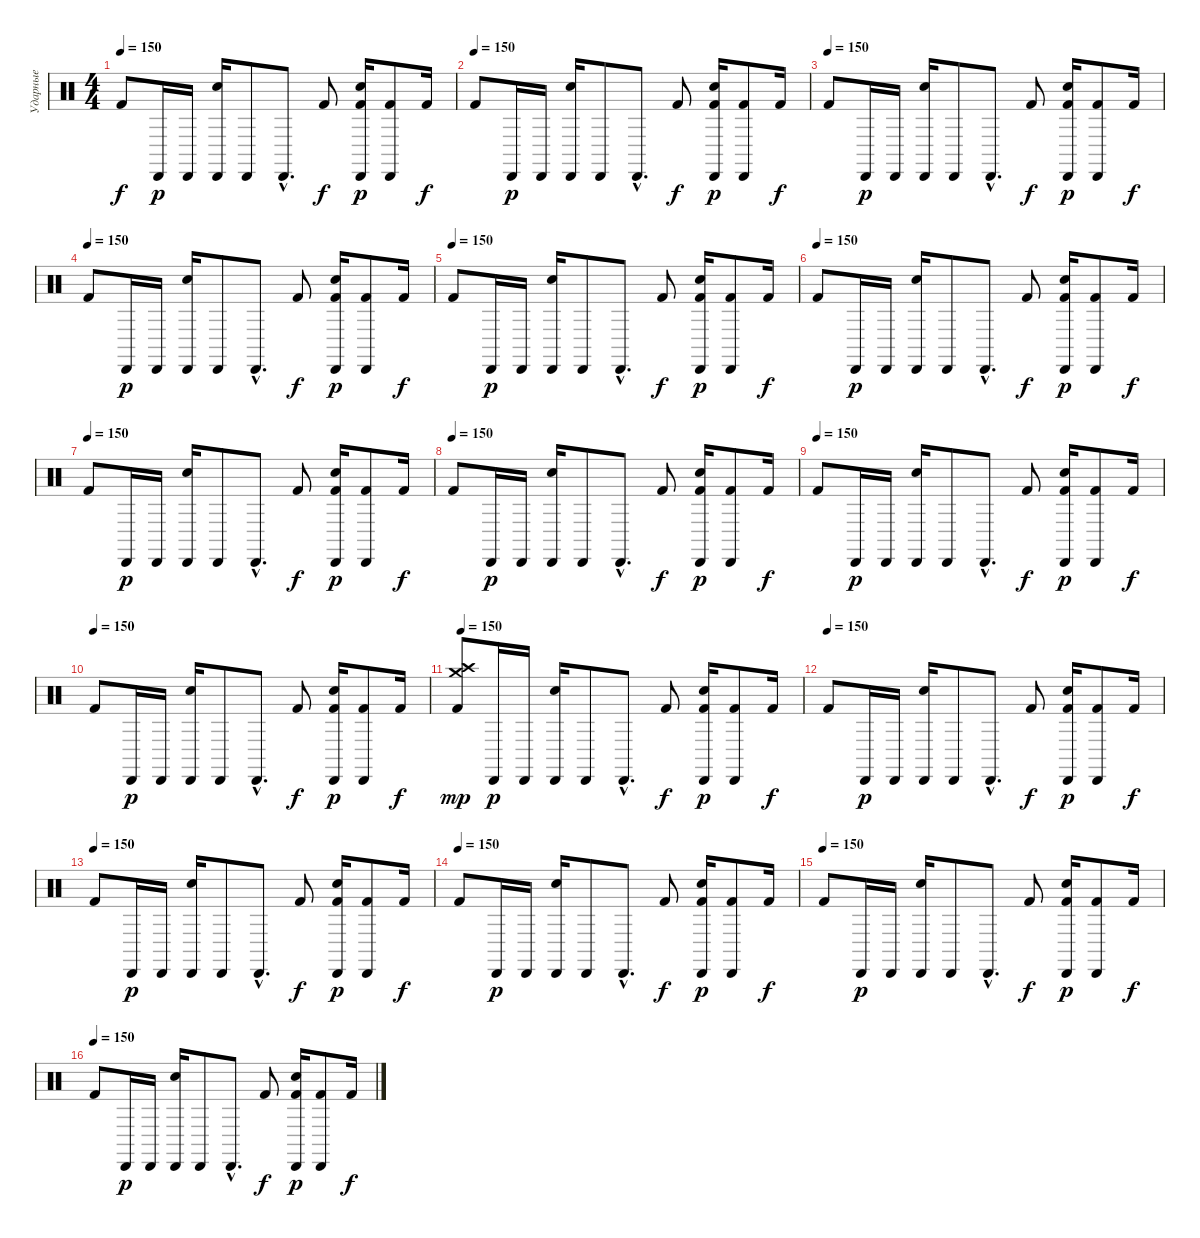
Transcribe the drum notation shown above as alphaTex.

\track ("Ударные" "Ударные") {instrument percussion}
\staff {score}
\articulation defaults
\ts (4 4)
\tempo 150
\clef neutral
\ks c "Kick (hit) 2".8{dy f} "Cabasa (hit)".16{dy p} "Cabasa (hit)".16
("Cabasa (hit)" "Electric Snare (hit)").16 "Cabasa (hit)".8 "Cabasa (hit)"{hac}.8{d} "Kick (hit) 2".8{dy f} ("Cabasa (hit)" "Electric Snare (hit)" "Kick (hit) 2").16{dy p} ("Cabasa (hit)" "Kick (hit) 2").8 "Kick (hit) 2".16{dy f} |
\tempo (150)
"Kick (hit) 2".8 "Cabasa (hit)".16{dy p} "Cabasa (hit)".16 ("Cabasa (hit)" "Electric Snare (hit)").16 "Cabasa (hit)".8 "Cabasa (hit)"{hac}.8{d} "Kick (hit) 2".8{dy f} ("Cabasa (hit)" "Electric Snare (hit)" "Kick (hit) 2").16{dy p} ("Cabasa (hit)" "Kick (hit) 2").8 "Kick (hit) 2".16{dy f} |
\tempo (150)
"Kick (hit) 2".8 "Cabasa (hit)".16{dy p} "Cabasa (hit)".16 ("Cabasa (hit)" "Electric Snare (hit)").16 "Cabasa (hit)".8 "Cabasa (hit)"{hac}.8{d} "Kick (hit) 2".8{dy f} ("Cabasa (hit)" "Electric Snare (hit)" "Kick (hit) 2").16{dy p} ("Cabasa (hit)" "Kick (hit) 2").8 "Kick (hit) 2".16{dy f} |
\tempo (150)
"Kick (hit) 2".8 "Cabasa (hit)".16{dy p} "Cabasa (hit)".16 ("Cabasa (hit)" "Electric Snare (hit)").16 "Cabasa (hit)".8 "Cabasa (hit)"{hac}.8{d} "Kick (hit) 2".8{dy f} ("Cabasa (hit)" "Electric Snare (hit)" "Kick (hit) 2").16{dy p} ("Cabasa (hit)" "Kick (hit) 2").8 "Kick (hit) 2".16{dy f} |
\tempo (150)
"Kick (hit) 2".8 "Cabasa (hit)".16{dy p} "Cabasa (hit)".16 ("Cabasa (hit)" "Electric Snare (hit)").16 "Cabasa (hit)".8 "Cabasa (hit)"{hac}.8{d} "Kick (hit) 2".8{dy f} ("Cabasa (hit)" "Electric Snare (hit)" "Kick (hit) 2").16{dy p} ("Cabasa (hit)" "Kick (hit) 2").8 "Kick (hit) 2".16{dy f} |
\tempo (150)
"Kick (hit) 2".8 "Cabasa (hit)".16{dy p} "Cabasa (hit)".16 ("Cabasa (hit)" "Electric Snare (hit)").16 "Cabasa (hit)".8 "Cabasa (hit)"{hac}.8{d} "Kick (hit) 2".8{dy f} ("Cabasa (hit)" "Electric Snare (hit)" "Kick (hit) 2").16{dy p} ("Cabasa (hit)" "Kick (hit) 2").8 "Kick (hit) 2".16{dy f} |
\tempo (150)
"Kick (hit) 2".8 "Cabasa (hit)".16{dy p} "Cabasa (hit)".16 ("Cabasa (hit)" "Electric Snare (hit)").16 "Cabasa (hit)".8 "Cabasa (hit)"{hac}.8{d} "Kick (hit) 2".8{dy f} ("Cabasa (hit)" "Electric Snare (hit)" "Kick (hit) 2").16{dy p} ("Cabasa (hit)" "Kick (hit) 2").8 "Kick (hit) 2".16{dy f} |
\tempo (150)
"Kick (hit) 2".8 "Cabasa (hit)".16{dy p} "Cabasa (hit)".16 ("Cabasa (hit)" "Electric Snare (hit)").16 "Cabasa (hit)".8 "Cabasa (hit)"{hac}.8{d} "Kick (hit) 2".8{dy f} ("Cabasa (hit)" "Electric Snare (hit)" "Kick (hit) 2").16{dy p} ("Cabasa (hit)" "Kick (hit) 2").8 "Kick (hit) 2".16{dy f} |
\tempo (150)
"Kick (hit) 2".8 "Cabasa (hit)".16{dy p} "Cabasa (hit)".16 ("Cabasa (hit)" "Electric Snare (hit)").16 "Cabasa (hit)".8 "Cabasa (hit)"{hac}.8{d} "Kick (hit) 2".8{dy f} ("Cabasa (hit)" "Electric Snare (hit)" "Kick (hit) 2").16{dy p} ("Cabasa (hit)" "Kick (hit) 2").8 "Kick (hit) 2".16{dy f} |
\tempo (150)
"Kick (hit) 2".8 "Cabasa (hit)".16{dy p} "Cabasa (hit)".16 ("Cabasa (hit)" "Electric Snare (hit)").16 "Cabasa (hit)".8 "Cabasa (hit)"{hac}.8{d} "Kick (hit) 2".8{dy f} ("Cabasa (hit)" "Electric Snare (hit)" "Kick (hit) 2").16{dy p} ("Cabasa (hit)" "Kick (hit) 2").8 "Kick (hit) 2".16{dy f} |
\tempo 150
("Crash medium (hit)" "Crash high (hit)" "Kick (hit) 2").8{dy mp} "Cabasa (hit)".16{dy p} "Cabasa (hit)".16 ("Cabasa (hit)" "Electric Snare (hit)").16 "Cabasa (hit)".8 "Cabasa (hit)"{hac}.8{d} "Kick (hit) 2".8{dy f} ("Cabasa (hit)" "Electric Snare (hit)" "Kick (hit) 2").16{dy p} ("Cabasa (hit)" "Kick (hit) 2").8 "Kick (hit) 2".16{dy f} |
\tempo (150)
"Kick (hit) 2".8 "Cabasa (hit)".16{dy p} "Cabasa (hit)".16 ("Cabasa (hit)" "Electric Snare (hit)").16 "Cabasa (hit)".8 "Cabasa (hit)"{hac}.8{d} "Kick (hit) 2".8{dy f} ("Cabasa (hit)" "Electric Snare (hit)" "Kick (hit) 2").16{dy p} ("Cabasa (hit)" "Kick (hit) 2").8 "Kick (hit) 2".16{dy f} |
\tempo (150)
"Kick (hit) 2".8 "Cabasa (hit)".16{dy p} "Cabasa (hit)".16 ("Cabasa (hit)" "Electric Snare (hit)").16 "Cabasa (hit)".8 "Cabasa (hit)"{hac}.8{d} "Kick (hit) 2".8{dy f} ("Cabasa (hit)" "Electric Snare (hit)" "Kick (hit) 2").16{dy p} ("Cabasa (hit)" "Kick (hit) 2").8 "Kick (hit) 2".16{dy f} |
\tempo (150)
"Kick (hit) 2".8 "Cabasa (hit)".16{dy p} "Cabasa (hit)".16 ("Cabasa (hit)" "Electric Snare (hit)").16 "Cabasa (hit)".8 "Cabasa (hit)"{hac}.8{d} "Kick (hit) 2".8{dy f} ("Cabasa (hit)" "Electric Snare (hit)" "Kick (hit) 2").16{dy p} ("Cabasa (hit)" "Kick (hit) 2").8 "Kick (hit) 2".16{dy f} |
\tempo (150)
"Kick (hit) 2".8 "Cabasa (hit)".16{dy p} "Cabasa (hit)".16 ("Cabasa (hit)" "Electric Snare (hit)").16 "Cabasa (hit)".8 "Cabasa (hit)"{hac}.8{d} "Kick (hit) 2".8{dy f} ("Cabasa (hit)" "Electric Snare (hit)" "Kick (hit) 2").16{dy p} ("Cabasa (hit)" "Kick (hit) 2").8 "Kick (hit) 2".16{dy f} |
\tempo (150)
"Kick (hit) 2".8 "Cabasa (hit)".16{dy p} "Cabasa (hit)".16 ("Cabasa (hit)" "Electric Snare (hit)").16 "Cabasa (hit)".8 "Cabasa (hit)"{hac}.8{d} "Kick (hit) 2".8{dy f} ("Cabasa (hit)" "Electric Snare (hit)" "Kick (hit) 2").16{dy p} ("Cabasa (hit)" "Kick (hit) 2").8 "Kick (hit) 2".16{dy f}
